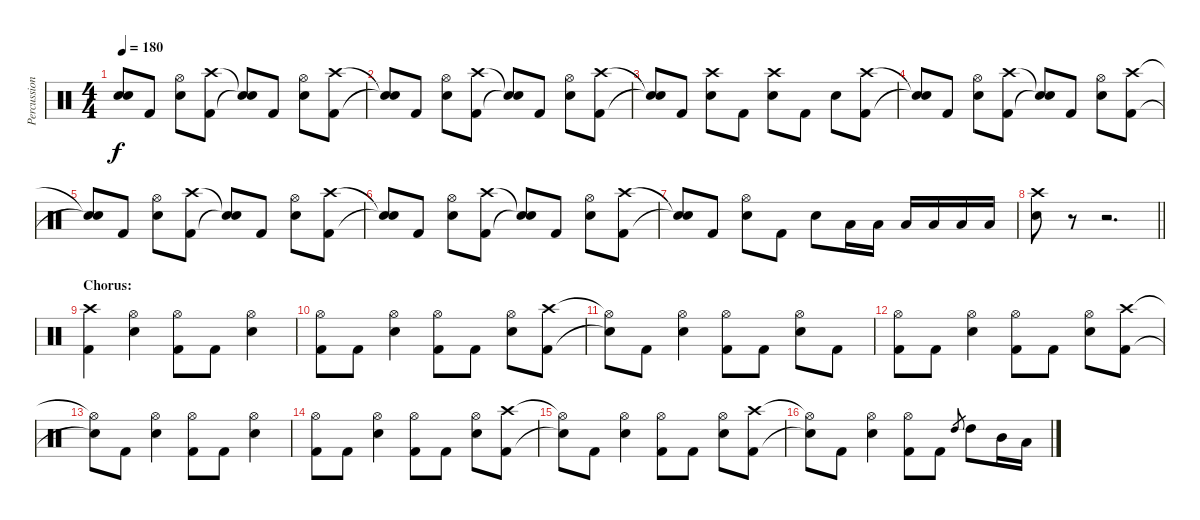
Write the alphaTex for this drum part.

\track ("Percussion" "Percussion") {instrument percussion}
\staff {score}
\articulation defaults
\ts (4 4)
\tempo 180
\clef neutral
\ks c
("Snare (hit)"{t} "Snare (hit)"{t}).8{dy f} "Kick (hit) 2".8 ("Hi-Hat (open)" "Electric Snare (hit)").8 ("Crash high (hit)" "Kick (hit) 2").8 ("Snare (hit)"{t} "Snare (hit)"{t}).8 "Kick (hit) 2".8 ("Hi-Hat (open)" "Electric Snare (hit)").8 ("Crash high (hit)" "Kick (hit) 2").8 |
("Snare (hit)"{t} "Snare (hit)"{t}).8 "Kick (hit) 2".8 ("Hi-Hat (open)" "Electric Snare (hit)").8 ("Crash high (hit)" "Kick (hit) 2").8 ("Snare (hit)"{t} "Snare (hit)"{t}).8 "Kick (hit) 2".8 ("Hi-Hat (open)" "Electric Snare (hit)").8 ("Crash high (hit)" "Kick (hit) 2").8 |
("Snare (hit)"{t} "Snare (hit)"{t}).8 "Kick (hit) 2".8 ("Crash high (hit)" "Electric Snare (hit)").8 "Kick (hit) 2".8 ("Crash high (hit)" "Electric Snare (hit)").8 "Kick (hit) 2".8 "Electric Snare (hit)".8 ("Crash high (hit)" "Kick (hit) 2").8 |
("Snare (hit)"{t} "Snare (hit)"{t}).8 "Kick (hit) 2".8 ("Hi-Hat (open)" "Electric Snare (hit)").8 ("Crash high (hit)" "Kick (hit) 2").8 ("Snare (hit)"{t} "Snare (hit)"{t}).8 "Kick (hit) 2".8 ("Hi-Hat (open)" "Electric Snare (hit)").8 ("Crash high (hit)" "Kick (hit) 2").8 |
("Snare (hit)"{t} "Snare (hit)"{t}).8 "Kick (hit) 2".8 ("Hi-Hat (open)" "Electric Snare (hit)").8 ("Crash high (hit)" "Kick (hit) 2").8 ("Snare (hit)"{t} "Snare (hit)"{t}).8 "Kick (hit) 2".8 ("Hi-Hat (open)" "Electric Snare (hit)").8 ("Crash high (hit)" "Kick (hit) 2").8 |
("Snare (hit)"{t} "Snare (hit)"{t}).8 "Kick (hit) 2".8 ("Hi-Hat (open)" "Electric Snare (hit)").8 ("Crash high (hit)" "Kick (hit) 2").8 ("Snare (hit)"{t} "Snare (hit)"{t}).8 "Kick (hit) 2".8 ("Hi-Hat (open)" "Electric Snare (hit)").8 ("Crash high (hit)" "Kick (hit) 2").8 |
("Snare (hit)"{t} "Snare (hit)"{t}).8 "Kick (hit) 2".8 ("Hi-Hat (open)" "Electric Snare (hit)").8 "Kick (hit) 2".8 "Electric Snare (hit)".8 "Low Tom (hit)".16 "Low Tom (hit)".16 "Low Tom (hit)".16 "Low Tom (hit)".16 "Low Tom (hit)".16 "Low Tom (hit)".16 |
\barLineRight lightlight
("Crash high (hit)" "Electric Snare (hit)").8 r.8 r.2{d} |
\section ("" "Chorus:")
("Crash high (hit)" "Kick (hit) 2").4 ("Hi-Hat (open)" "Electric Snare (hit)").4 ("Hi-Hat (open)" "Kick (hit) 2").8 "Kick (hit) 2".8 ("Hi-Hat (open)" "Electric Snare (hit)").4 |
("Hi-Hat (open)" "Kick (hit) 2").8 "Kick (hit) 2".8 ("Hi-Hat (open)" "Electric Snare (hit)").4 ("Hi-Hat (open)" "Kick (hit) 2").8 "Kick (hit) 2".8 ("Hi-Hat (open)" "Electric Snare (hit)").8 ("Crash high (hit)" "Kick (hit) 2").8 |
("Hi-Hat (open)"{t} "Snare (hit)"{t}).8 "Kick (hit) 2".8 ("Hi-Hat (open)" "Electric Snare (hit)").4 ("Hi-Hat (open)" "Kick (hit) 2").8 "Kick (hit) 2".8 ("Hi-Hat (open)" "Electric Snare (hit)").8 "Kick (hit) 2".8 |
("Hi-Hat (open)" "Kick (hit) 2").8 "Kick (hit) 2".8 ("Hi-Hat (open)" "Electric Snare (hit)").4 ("Hi-Hat (open)" "Kick (hit) 2").8 "Kick (hit) 2".8 ("Hi-Hat (open)" "Electric Snare (hit)").8 ("Crash high (hit)" "Kick (hit) 2").8 |
("Hi-Hat (open)"{t} "Snare (hit)"{t}).8 "Kick (hit) 2".8 ("Hi-Hat (open)" "Electric Snare (hit)").4 ("Hi-Hat (open)" "Kick (hit) 2").8 "Kick (hit) 2".8 ("Hi-Hat (open)" "Electric Snare (hit)").4 |
("Hi-Hat (open)" "Kick (hit) 2").8 "Kick (hit) 2".8 ("Hi-Hat (open)" "Electric Snare (hit)").4 ("Hi-Hat (open)" "Kick (hit) 2").8 "Kick (hit) 2".8 ("Hi-Hat (open)" "Electric Snare (hit)").8 ("Crash high (hit)" "Kick (hit) 2").8 |
("Hi-Hat (open)"{t} "Snare (hit)"{t}).8 "Kick (hit) 2".8 ("Hi-Hat (open)" "Electric Snare (hit)").4 ("Hi-Hat (open)" "Kick (hit) 2").8 "Kick (hit) 2".8 ("Hi-Hat (open)" "Electric Snare (hit)").8 ("Crash high (hit)" "Kick (hit) 2").8 |
("Hi-Hat (open)"{t} "Snare (hit)"{t}).8 "Kick (hit) 2".8 ("Hi-Hat (open)" "Electric Snare (hit)").4 ("Hi-Hat (open)" "Kick (hit) 2").8 "Kick (hit) 2".8 "High Tom (hit)".8{gr} "High Tom (hit)".8 "Mid Tom (hit)".16 "Low Tom (hit)".16
